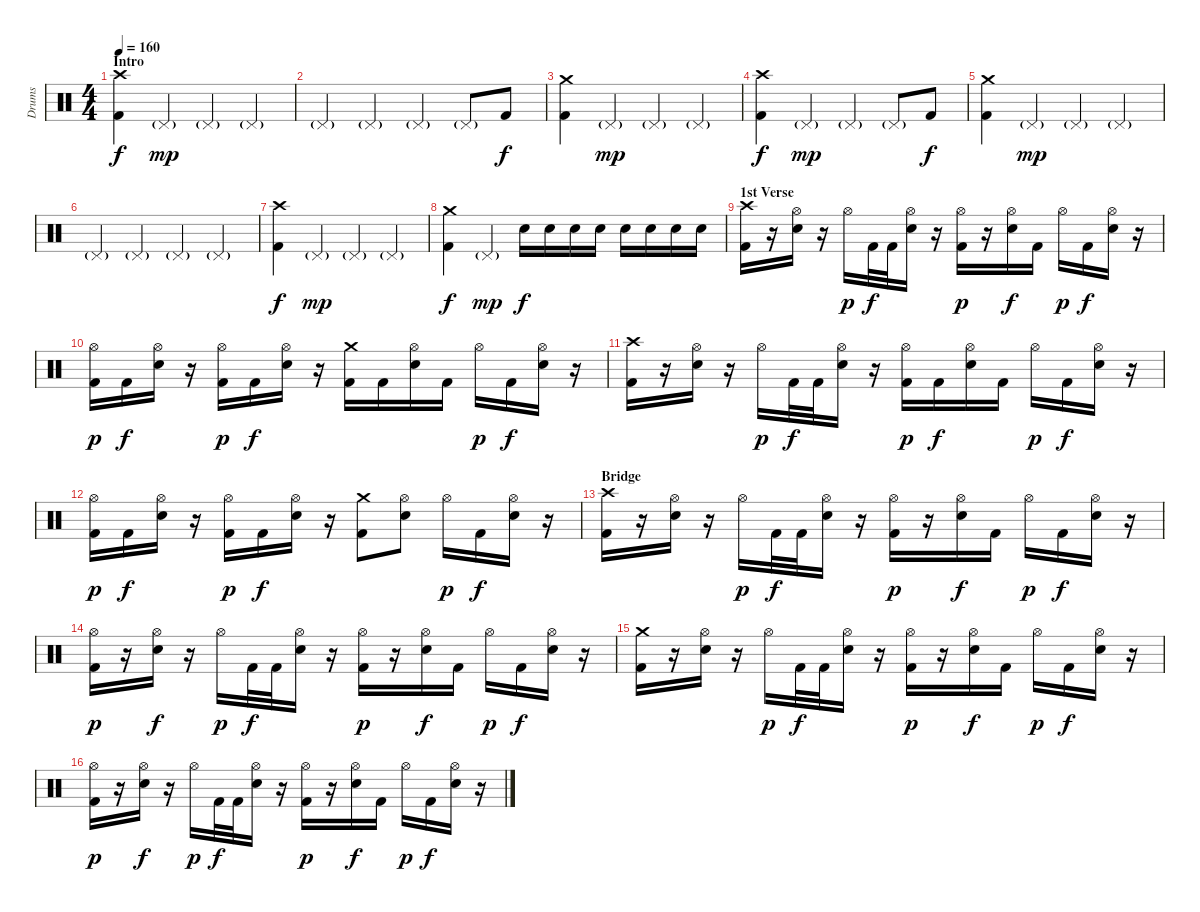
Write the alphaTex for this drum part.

\track ("Drums" "Drums") {instrument percussion}
\staff {score}
\articulation defaults
\ts (4 4)
\section ("" "Intro")
\tempo 160
\clef neutral
\ks c
("Crash high (hit)" "Kick (hit) 2").4{dy f} "Pedal Hi-Hat (hit)"{g}.4{dy mp} "Pedal Hi-Hat (hit)"{g}.4 "Pedal Hi-Hat (hit)"{g}.4 |
"Pedal Hi-Hat (hit)"{g}.4 "Pedal Hi-Hat (hit)"{g}.4 "Pedal Hi-Hat (hit)"{g}.4 "Pedal Hi-Hat (hit)"{g}.8 "Kick (hit) 2".8{dy f} |
("Crash medium (hit)" "Kick (hit) 2").4 "Pedal Hi-Hat (hit)"{g}.4{dy mp} "Pedal Hi-Hat (hit)"{g}.4 "Pedal Hi-Hat (hit)"{g}.4 |
("Crash high (hit)" "Kick (hit) 2").4{dy f} "Pedal Hi-Hat (hit)"{g}.4{dy mp} "Pedal Hi-Hat (hit)"{g}.4 "Pedal Hi-Hat (hit)"{g}.8 "Kick (hit) 2".8{dy f} |
("Crash medium (hit)" "Kick (hit) 2").4 "Pedal Hi-Hat (hit)"{g}.4{dy mp} "Pedal Hi-Hat (hit)"{g}.4 "Pedal Hi-Hat (hit)"{g}.4 |
"Pedal Hi-Hat (hit)"{g}.4 "Pedal Hi-Hat (hit)"{g}.4 "Pedal Hi-Hat (hit)"{g}.4 "Pedal Hi-Hat (hit)"{g}.4 |
("Crash high (hit)" "Kick (hit) 2").4{dy f} "Pedal Hi-Hat (hit)"{g}.4{dy mp} "Pedal Hi-Hat (hit)"{g}.4 "Pedal Hi-Hat (hit)"{g}.4 |
("Crash medium (hit)" "Kick (hit) 2").4{dy f} "Pedal Hi-Hat (hit)"{g}.4{dy mp} "Snare (hit) 2".16{dy f} "Snare (hit) 2".16 "Snare (hit) 2".16 "Snare (hit) 2".16 "Snare (hit) 2".16 "Snare (hit) 2".16 "Snare (hit) 2".16 "Snare (hit) 2".16 |
\section ("" "1st Verse")
("Crash high (hit)" "Kick (hit) 2").16 r.16 ("Hi-Hat (open)" "Snare (hit) 2").16 r.16 "Hi-Hat (open)".16{dy p} "Kick (hit) 2".32{dy f} "Kick (hit) 2".32 ("Hi-Hat (open)" "Snare (hit) 2").16 r.16 ("Hi-Hat (open)" "Kick (hit) 2").16{dy p} r.16 ("Hi-Hat (open)" "Snare (hit) 2").16{dy f} "Kick (hit) 2".16 "Hi-Hat (open)".16{dy p} "Kick (hit) 2".16{dy f} ("Hi-Hat (open)" "Snare (hit) 2").16 r.16 |
("Hi-Hat (open)" "Kick (hit) 2").16{dy p} "Kick (hit) 2".16{dy f} ("Hi-Hat (open)" "Snare (hit) 2").16 r.16 ("Hi-Hat (open)" "Kick (hit) 2").16{dy p} "Kick (hit) 2".16{dy f} ("Hi-Hat (open)" "Snare (hit) 2").16 r.16 ("Crash medium (hit)" "Kick (hit) 2").16 "Kick (hit) 2".16 ("Hi-Hat (open)" "Snare (hit) 2").16 "Kick (hit) 2".16 "Hi-Hat (open)".16{dy p} "Kick (hit) 2".16{dy f} ("Hi-Hat (open)" "Snare (hit) 2").16 r.16 |
("Crash high (hit)" "Kick (hit) 2").16 r.16 ("Hi-Hat (open)" "Snare (hit) 2").16 r.16 "Hi-Hat (open)".16{dy p} "Kick (hit) 2".32{dy f} "Kick (hit) 2".32 ("Hi-Hat (open)" "Snare (hit) 2").16 r.16 ("Hi-Hat (open)" "Kick (hit) 2").16{dy p} "Kick (hit) 2".16{dy f} ("Hi-Hat (open)" "Snare (hit) 2").16 "Kick (hit) 2".16 "Hi-Hat (open)".16{dy p} "Kick (hit) 2".16{dy f} ("Hi-Hat (open)" "Snare (hit) 2").16 r.16 |
("Hi-Hat (open)" "Kick (hit) 2").16{dy p} "Kick (hit) 2".16{dy f} ("Hi-Hat (open)" "Snare (hit) 2").16 r.16 ("Hi-Hat (open)" "Kick (hit) 2").16{dy p} "Kick (hit) 2".16{dy f} ("Hi-Hat (open)" "Snare (hit) 2").16 r.16 ("Crash medium (hit)" "Kick (hit) 2").8 ("Hi-Hat (open)" "Snare (hit) 2").8 "Hi-Hat (open)".16{dy p} "Kick (hit) 2".16{dy f} ("Hi-Hat (open)" "Snare (hit) 2").16 r.16 |
\section ("" "Bridge")
("Crash high (hit)" "Kick (hit) 2").16 r.16 ("Hi-Hat (open)" "Snare (hit) 2").16 r.16 "Hi-Hat (open)".16{dy p} "Kick (hit) 2".32{dy f} "Kick (hit) 2".32 ("Hi-Hat (open)" "Snare (hit) 2").16 r.16 ("Hi-Hat (open)" "Kick (hit) 2").16{dy p} r.16 ("Hi-Hat (open)" "Snare (hit) 2").16{dy f} "Kick (hit) 2".16 "Hi-Hat (open)".16{dy p} "Kick (hit) 2".16{dy f} ("Hi-Hat (open)" "Snare (hit) 2").16 r.16 |
("Hi-Hat (open)" "Kick (hit) 2").16{dy p} r.16 ("Hi-Hat (open)" "Snare (hit) 2").16{dy f} r.16 "Hi-Hat (open)".16{dy p} "Kick (hit) 2".32{dy f} "Kick (hit) 2".32 ("Hi-Hat (open)" "Snare (hit) 2").16 r.16 ("Hi-Hat (open)" "Kick (hit) 2").16{dy p} r.16 ("Hi-Hat (open)" "Snare (hit) 2").16{dy f} "Kick (hit) 2".16 "Hi-Hat (open)".16{dy p} "Kick (hit) 2".16{dy f} ("Hi-Hat (open)" "Snare (hit) 2").16 r.16 |
("Crash medium (hit)" "Kick (hit) 2").16 r.16 ("Hi-Hat (open)" "Snare (hit) 2").16 r.16 "Hi-Hat (open)".16{dy p} "Kick (hit) 2".32{dy f} "Kick (hit) 2".32 ("Hi-Hat (open)" "Snare (hit) 2").16 r.16 ("Hi-Hat (open)" "Kick (hit) 2").16{dy p} r.16 ("Hi-Hat (open)" "Snare (hit) 2").16{dy f} "Kick (hit) 2".16 "Hi-Hat (open)".16{dy p} "Kick (hit) 2".16{dy f} ("Hi-Hat (open)" "Snare (hit) 2").16 r.16 |
("Hi-Hat (open)" "Kick (hit) 2").16{dy p} r.16 ("Hi-Hat (open)" "Snare (hit) 2").16{dy f} r.16 "Hi-Hat (open)".16{dy p} "Kick (hit) 2".32{dy f} "Kick (hit) 2".32 ("Hi-Hat (open)" "Snare (hit) 2").16 r.16 ("Hi-Hat (open)" "Kick (hit) 2").16{dy p} r.16 ("Hi-Hat (open)" "Snare (hit) 2").16{dy f} "Kick (hit) 2".16 "Hi-Hat (open)".16{dy p} "Kick (hit) 2".16{dy f} ("Hi-Hat (open)" "Snare (hit) 2").16 r.16
